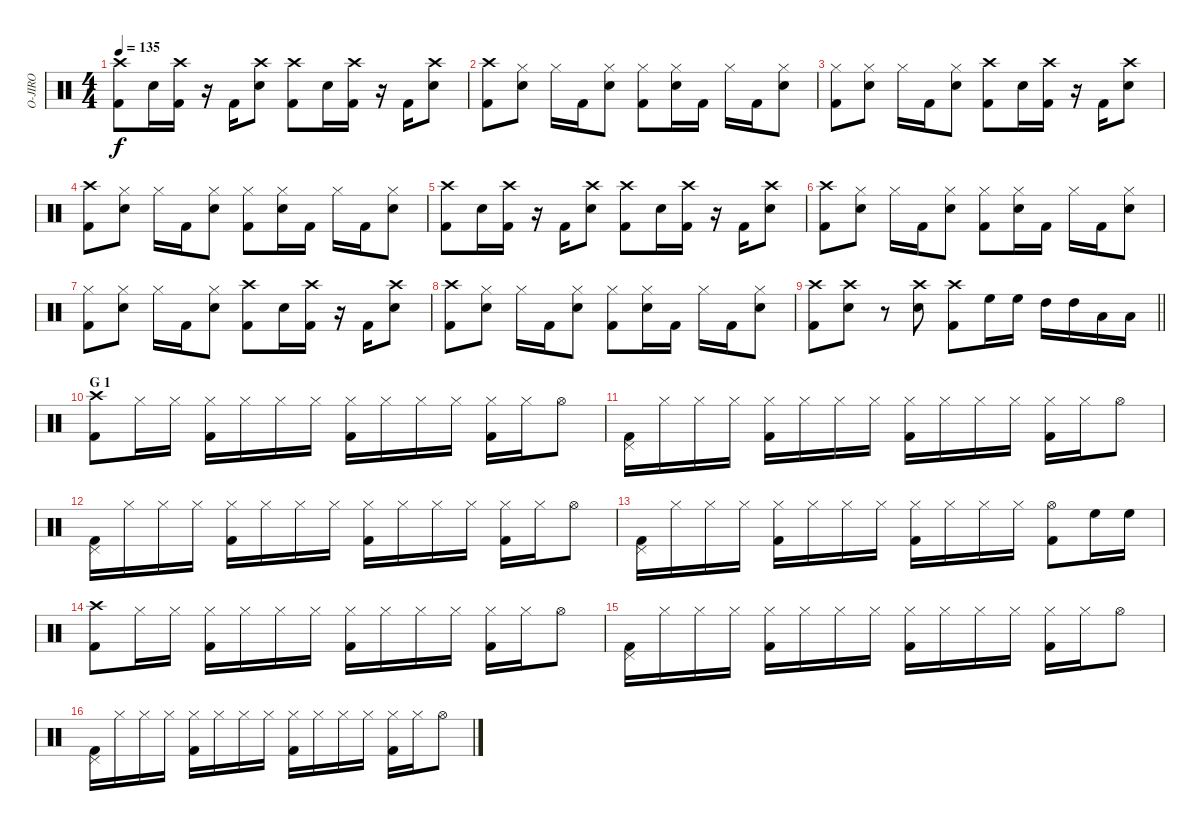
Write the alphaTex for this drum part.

\track ("O-JIRO" "O-JIRO") {instrument percussion}
\staff {score}
\articulation defaults
\ts (4 4)
\tempo 135
\clef neutral
\ks c
("Crash high (hit)" "Kick (hit) 2").8{dy f} "Snare (hit) 2".16 ("Crash high (hit)" "Kick (hit) 2").16 r.16 "Kick (hit) 2".16 ("Crash high (hit)" "Snare (hit) 2").8 ("Crash high (hit)" "Kick (hit) 2").8 "Snare (hit) 2".16 ("Crash high (hit)" "Kick (hit) 2").16 r.16 "Kick (hit) 2".16 ("Crash high (hit)" "Snare (hit) 2").8 |
("Crash high (hit)" "Kick (hit) 2").8 ("Hi-Hat (closed)" "Snare (hit) 2").8 "Hi-Hat (closed)".16 "Kick (hit) 2".16 ("Hi-Hat (closed)" "Snare (hit) 2").8 ("Hi-Hat (closed)" "Kick (hit) 2").8 ("Hi-Hat (closed)" "Snare (hit) 2").16 "Kick (hit) 2".16 "Hi-Hat (closed)".16 "Kick (hit) 2".16 ("Hi-Hat (closed)" "Snare (hit) 2").8 |
("Hi-Hat (closed)" "Kick (hit) 2").8 ("Hi-Hat (closed)" "Snare (hit) 2").8 "Hi-Hat (closed)".16 "Kick (hit) 2".16 ("Hi-Hat (closed)" "Snare (hit) 2").8 ("Crash high (hit)" "Kick (hit) 2").8 "Snare (hit) 2".16 ("Crash high (hit)" "Kick (hit) 2").16 r.16 "Kick (hit) 2".16 ("Crash high (hit)" "Snare (hit) 2").8 |
("Crash high (hit)" "Kick (hit) 2").8 ("Hi-Hat (closed)" "Snare (hit) 2").8 "Hi-Hat (closed)".16 "Kick (hit) 2".16 ("Hi-Hat (closed)" "Snare (hit) 2").8 ("Hi-Hat (closed)" "Kick (hit) 2").8 ("Hi-Hat (closed)" "Snare (hit) 2").16 "Kick (hit) 2".16 "Hi-Hat (closed)".16 "Kick (hit) 2".16 ("Hi-Hat (closed)" "Snare (hit) 2").8 |
("Crash high (hit)" "Kick (hit) 2").8 "Snare (hit) 2".16 ("Crash high (hit)" "Kick (hit) 2").16 r.16 "Kick (hit) 2".16 ("Crash high (hit)" "Snare (hit) 2").8 ("Crash high (hit)" "Kick (hit) 2").8 "Snare (hit) 2".16 ("Crash high (hit)" "Kick (hit) 2").16 r.16 "Kick (hit) 2".16 ("Crash high (hit)" "Snare (hit) 2").8 |
("Crash high (hit)" "Kick (hit) 2").8 ("Hi-Hat (closed)" "Snare (hit) 2").8 "Hi-Hat (closed)".16 "Kick (hit) 2".16 ("Hi-Hat (closed)" "Snare (hit) 2").8 ("Hi-Hat (closed)" "Kick (hit) 2").8 ("Hi-Hat (closed)" "Snare (hit) 2").16 "Kick (hit) 2".16 "Hi-Hat (closed)".16 "Kick (hit) 2".16 ("Hi-Hat (closed)" "Snare (hit) 2").8 |
("Hi-Hat (closed)" "Kick (hit) 2").8 ("Hi-Hat (closed)" "Snare (hit) 2").8 "Hi-Hat (closed)".16 "Kick (hit) 2".16 ("Hi-Hat (closed)" "Snare (hit) 2").8 ("Crash high (hit)" "Kick (hit) 2").8 "Snare (hit) 2".16 ("Crash high (hit)" "Kick (hit) 2").16 r.16 "Kick (hit) 2".16 ("Crash high (hit)" "Snare (hit) 2").8 |
("Crash high (hit)" "Kick (hit) 2").8 ("Hi-Hat (closed)" "Snare (hit) 2").8 "Hi-Hat (closed)".16 "Kick (hit) 2".16 ("Hi-Hat (closed)" "Snare (hit) 2").8 ("Hi-Hat (closed)" "Kick (hit) 2").8 ("Hi-Hat (closed)" "Snare (hit) 2").16 "Kick (hit) 2".16 "Hi-Hat (closed)".16 "Kick (hit) 2".16 ("Hi-Hat (closed)" "Snare (hit) 2").8 |
\barLineRight lightlight
("Crash high (hit)" "Kick (hit) 2").8 ("Crash high (hit)" "Snare (hit) 2").8 r.8 ("Crash high (hit)" "Snare (hit) 2").8 ("Crash high (hit)" "Kick (hit) 2").8 "High Floor Tom (hit)".16 "High Floor Tom (hit)".16 "High Tom (hit)".16 "High Tom (hit)".16 "Low Tom (hit)".16 "Low Tom (hit)".16 |
\section ("" "G 1")
("Crash high (hit)" "Kick (hit) 2").8 "Hi-Hat (closed)".16 "Hi-Hat (closed)".16 ("Hi-Hat (closed)" "Kick (hit) 2").16 "Hi-Hat (closed)".16 "Hi-Hat (closed)".16 "Hi-Hat (closed)".16 ("Hi-Hat (closed)" "Kick (hit) 2").16 "Hi-Hat (closed)".16 "Hi-Hat (closed)".16 "Hi-Hat (closed)".16 ("Hi-Hat (closed)" "Kick (hit) 2").16 "Hi-Hat (closed)".16 "Hi-Hat (open)".8 |
("Pedal Hi-Hat (hit)" "Kick (hit) 2").16 "Hi-Hat (closed)".16 "Hi-Hat (closed)".16 "Hi-Hat (closed)".16 ("Hi-Hat (closed)" "Kick (hit) 2").16 "Hi-Hat (closed)".16 "Hi-Hat (closed)".16 "Hi-Hat (closed)".16 ("Hi-Hat (closed)" "Kick (hit) 2").16 "Hi-Hat (closed)".16 "Hi-Hat (closed)".16 "Hi-Hat (closed)".16 ("Hi-Hat (closed)" "Kick (hit) 2").16 "Hi-Hat (closed)".16 "Hi-Hat (open)".8 |
("Pedal Hi-Hat (hit)" "Kick (hit) 2").16 "Hi-Hat (closed)".16 "Hi-Hat (closed)".16 "Hi-Hat (closed)".16 ("Hi-Hat (closed)" "Kick (hit) 2").16 "Hi-Hat (closed)".16 "Hi-Hat (closed)".16 "Hi-Hat (closed)".16 ("Hi-Hat (closed)" "Kick (hit) 2").16 "Hi-Hat (closed)".16 "Hi-Hat (closed)".16 "Hi-Hat (closed)".16 ("Hi-Hat (closed)" "Kick (hit) 2").16 "Hi-Hat (closed)".16 "Hi-Hat (open)".8 |
("Pedal Hi-Hat (hit)" "Kick (hit) 2").16 "Hi-Hat (closed)".16 "Hi-Hat (closed)".16 "Hi-Hat (closed)".16 ("Hi-Hat (closed)" "Kick (hit) 2").16 "Hi-Hat (closed)".16 "Hi-Hat (closed)".16 "Hi-Hat (closed)".16 ("Hi-Hat (closed)" "Kick (hit) 2").16 "Hi-Hat (closed)".16 "Hi-Hat (closed)".16 "Hi-Hat (closed)".16 ("Hi-Hat (open)" "Kick (hit) 2").8 "High Floor Tom (hit)".16 "High Floor Tom (hit)".16 |
("Crash high (hit)" "Kick (hit) 2").8 "Hi-Hat (closed)".16 "Hi-Hat (closed)".16 ("Hi-Hat (closed)" "Kick (hit) 2").16 "Hi-Hat (closed)".16 "Hi-Hat (closed)".16 "Hi-Hat (closed)".16 ("Hi-Hat (closed)" "Kick (hit) 2").16 "Hi-Hat (closed)".16 "Hi-Hat (closed)".16 "Hi-Hat (closed)".16 ("Hi-Hat (closed)" "Kick (hit) 2").16 "Hi-Hat (closed)".16 "Hi-Hat (open)".8 |
("Pedal Hi-Hat (hit)" "Kick (hit) 2").16 "Hi-Hat (closed)".16 "Hi-Hat (closed)".16 "Hi-Hat (closed)".16 ("Hi-Hat (closed)" "Kick (hit) 2").16 "Hi-Hat (closed)".16 "Hi-Hat (closed)".16 "Hi-Hat (closed)".16 ("Hi-Hat (closed)" "Kick (hit) 2").16 "Hi-Hat (closed)".16 "Hi-Hat (closed)".16 "Hi-Hat (closed)".16 ("Hi-Hat (closed)" "Kick (hit) 2").16 "Hi-Hat (closed)".16 "Hi-Hat (open)".8 |
("Pedal Hi-Hat (hit)" "Kick (hit) 2").16 "Hi-Hat (closed)".16 "Hi-Hat (closed)".16 "Hi-Hat (closed)".16 ("Hi-Hat (closed)" "Kick (hit) 2").16 "Hi-Hat (closed)".16 "Hi-Hat (closed)".16 "Hi-Hat (closed)".16 ("Hi-Hat (closed)" "Kick (hit) 2").16 "Hi-Hat (closed)".16 "Hi-Hat (closed)".16 "Hi-Hat (closed)".16 ("Hi-Hat (closed)" "Kick (hit) 2").16 "Hi-Hat (closed)".16 "Hi-Hat (open)".8
